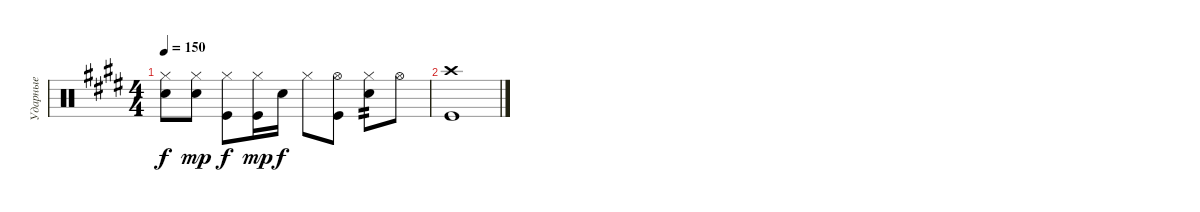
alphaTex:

\track ("Ударные" "Ударные") {instrument percussion}
\staff {score}
\articulation defaults
\ts (4 4)
\tempo 150
\clef neutral
\ks c#minor
("Hi-Hat (closed)" "Snare (hit) 2").8{dy f} ("Hi-Hat (closed)" "Snare (hit) 2").8{dy mp} ("Hi-Hat (closed)" "Kick (hit)").8{dy f} ("Hi-Hat (closed)" "Kick (hit)").16{dy mp} "Snare (hit) 2".16{dy f} "Hi-Hat (closed)".8 ("Hi-Hat (open)" "Kick (hit)").8 ("Hi-Hat (closed)" "Snare (hit) 2").8{tp 2} "Hi-Hat (open)".8 |
("Crash high (hit)" "Kick (hit)").1
